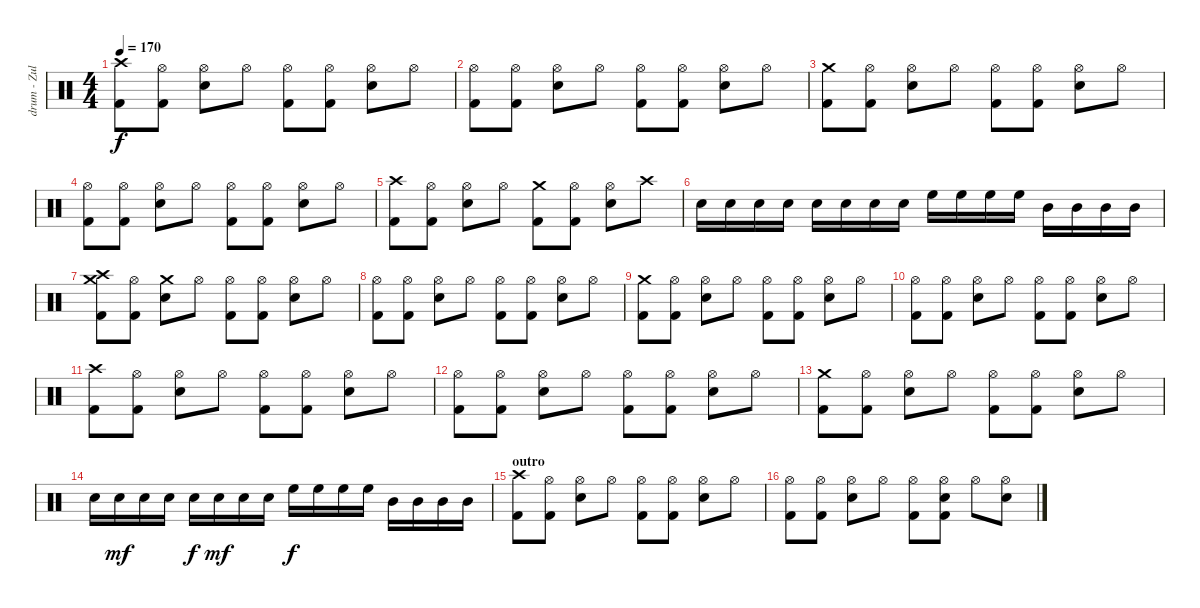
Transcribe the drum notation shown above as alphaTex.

\track ("drum - Zul ???" "drum - Zul") {instrument percussion}
\staff {score}
\articulation defaults
\ts (4 4)
\tempo 170
\clef neutral
\ks c
("Crash high (hit)" "Kick (hit) 2").8{dy f} ("Hi-Hat (open)" "Kick (hit) 2").8 ("Hi-Hat (open)" "Snare (hit) 2").8 "Hi-Hat (open)".8 ("Hi-Hat (open)" "Kick (hit) 2").8 ("Hi-Hat (open)" "Kick (hit) 2").8 ("Hi-Hat (open)" "Snare (hit) 2").8 "Hi-Hat (open)".8 |
("Hi-Hat (open)" "Kick (hit) 2").8 ("Hi-Hat (open)" "Kick (hit) 2").8 ("Hi-Hat (open)" "Snare (hit) 2").8 "Hi-Hat (open)".8 ("Hi-Hat (open)" "Kick (hit) 2").8 ("Hi-Hat (open)" "Kick (hit) 2").8 ("Hi-Hat (open)" "Snare (hit) 2").8 "Hi-Hat (open)".8 |
("Crash medium (hit)" "Kick (hit) 2").8 ("Hi-Hat (open)" "Kick (hit) 2").8 ("Hi-Hat (open)" "Snare (hit) 2").8 "Hi-Hat (open)".8 ("Hi-Hat (open)" "Kick (hit) 2").8 ("Hi-Hat (open)" "Kick (hit) 2").8 ("Hi-Hat (open)" "Snare (hit) 2").8 "Hi-Hat (open)".8 |
("Hi-Hat (open)" "Kick (hit) 2").8 ("Hi-Hat (open)" "Kick (hit) 2").8 ("Hi-Hat (open)" "Snare (hit) 2").8 "Hi-Hat (open)".8 ("Hi-Hat (open)" "Kick (hit) 2").8 ("Hi-Hat (open)" "Kick (hit) 2").8 ("Hi-Hat (open)" "Snare (hit) 2").8 "Hi-Hat (open)".8 |
("Crash high (hit)" "Kick (hit) 2").8 ("Hi-Hat (open)" "Kick (hit) 2").8 ("Hi-Hat (open)" "Snare (hit) 2").8 "Hi-Hat (open)".8 ("Crash medium (hit)" "Kick (hit) 2").8 ("Hi-Hat (open)" "Kick (hit) 2").8 ("Hi-Hat (open)" "Snare (hit) 2").8 "Crash high (hit)".8 |
"Snare (hit) 2".16 "Snare (hit) 2".16 "Snare (hit) 2".16 "Snare (hit) 2".16 "Snare (hit) 2".16 "Snare (hit) 2".16 "Snare (hit) 2".16 "Snare (hit) 2".16 "High Floor Tom (hit)".16 "High Floor Tom (hit)".16 "High Floor Tom (hit)".16 "High Floor Tom (hit)".16 "Mid Tom (hit)".16 "Mid Tom (hit)".16 "Mid Tom (hit)".16 "Mid Tom (hit)".16 |
("Crash high (hit)" "Crash medium (hit)" "Kick (hit) 2").8 ("Hi-Hat (open)" "Kick (hit) 2").8 ("Crash medium (hit)" "Snare (hit) 2").8 "Hi-Hat (open)".8 ("Hi-Hat (open)" "Kick (hit) 2").8 ("Hi-Hat (open)" "Kick (hit) 2").8 ("Hi-Hat (open)" "Snare (hit) 2").8 "Hi-Hat (open)".8 |
("Hi-Hat (open)" "Kick (hit) 2").8 ("Hi-Hat (open)" "Kick (hit) 2").8 ("Hi-Hat (open)" "Snare (hit) 2").8 "Hi-Hat (open)".8 ("Hi-Hat (open)" "Kick (hit) 2").8 ("Hi-Hat (open)" "Kick (hit) 2").8 ("Hi-Hat (open)" "Snare (hit) 2").8 "Hi-Hat (open)".8 |
("Crash medium (hit)" "Kick (hit) 2").8 ("Hi-Hat (open)" "Kick (hit) 2").8 ("Hi-Hat (open)" "Snare (hit) 2").8 "Hi-Hat (open)".8 ("Hi-Hat (open)" "Kick (hit) 2").8 ("Hi-Hat (open)" "Kick (hit) 2").8 ("Hi-Hat (open)" "Snare (hit) 2").8 "Hi-Hat (open)".8 |
("Hi-Hat (open)" "Kick (hit) 2").8 ("Hi-Hat (open)" "Kick (hit) 2").8 ("Hi-Hat (open)" "Snare (hit) 2").8 "Hi-Hat (open)".8 ("Hi-Hat (open)" "Kick (hit) 2").8 ("Hi-Hat (open)" "Kick (hit) 2").8 ("Hi-Hat (open)" "Snare (hit) 2").8 "Hi-Hat (open)".8 |
("Crash high (hit)" "Kick (hit) 2").8 ("Hi-Hat (open)" "Kick (hit) 2").8 ("Hi-Hat (open)" "Snare (hit) 2").8 "Hi-Hat (open)".8 ("Hi-Hat (open)" "Kick (hit) 2").8 ("Hi-Hat (open)" "Kick (hit) 2").8 ("Hi-Hat (open)" "Snare (hit) 2").8 "Hi-Hat (open)".8 |
("Hi-Hat (open)" "Kick (hit) 2").8 ("Hi-Hat (open)" "Kick (hit) 2").8 ("Hi-Hat (open)" "Snare (hit) 2").8 "Hi-Hat (open)".8 ("Hi-Hat (open)" "Kick (hit) 2").8 ("Hi-Hat (open)" "Kick (hit) 2").8 ("Hi-Hat (open)" "Snare (hit) 2").8 "Hi-Hat (open)".8 |
("Crash medium (hit)" "Kick (hit) 2").8 ("Hi-Hat (open)" "Kick (hit) 2").8 ("Hi-Hat (open)" "Snare (hit) 2").8 "Hi-Hat (open)".8 ("Hi-Hat (open)" "Kick (hit) 2").8 ("Hi-Hat (open)" "Kick (hit) 2").8 ("Hi-Hat (open)" "Snare (hit) 2").8 "Hi-Hat (open)".8 |
"Snare (hit) 2".16 "Snare (hit) 2".16{dy mf} "Snare (hit) 2".16 "Snare (hit) 2".16 "Snare (hit) 2".16{dy f} "Snare (hit) 2".16{dy mf} "Snare (hit) 2".16 "Snare (hit) 2".16 "High Floor Tom (hit)".16{dy f} "High Floor Tom (hit)".16 "High Floor Tom (hit)".16 "High Floor Tom (hit)".16 "Mid Tom (hit)".16 "Mid Tom (hit)".16 "Mid Tom (hit)".16 "Mid Tom (hit)".16 |
\section ("" "outro")
("Crash high (hit)" "Kick (hit) 2").8 ("Hi-Hat (open)" "Kick (hit) 2").8 ("Hi-Hat (open)" "Snare (hit) 2").8 "Hi-Hat (open)".8 ("Hi-Hat (open)" "Kick (hit) 2").8 ("Hi-Hat (open)" "Kick (hit) 2").8 ("Hi-Hat (open)" "Snare (hit) 2").8 "Hi-Hat (open)".8 |
("Hi-Hat (open)" "Kick (hit) 2").8 ("Hi-Hat (open)" "Kick (hit) 2").8 ("Hi-Hat (open)" "Snare (hit) 2").8 "Hi-Hat (open)".8 ("Hi-Hat (open)" "Kick (hit) 2").8 ("Hi-Hat (open)" "Snare (hit) 2" "Kick (hit) 2").8 "Hi-Hat (open)".8 ("Hi-Hat (open)" "Snare (hit) 2").8
